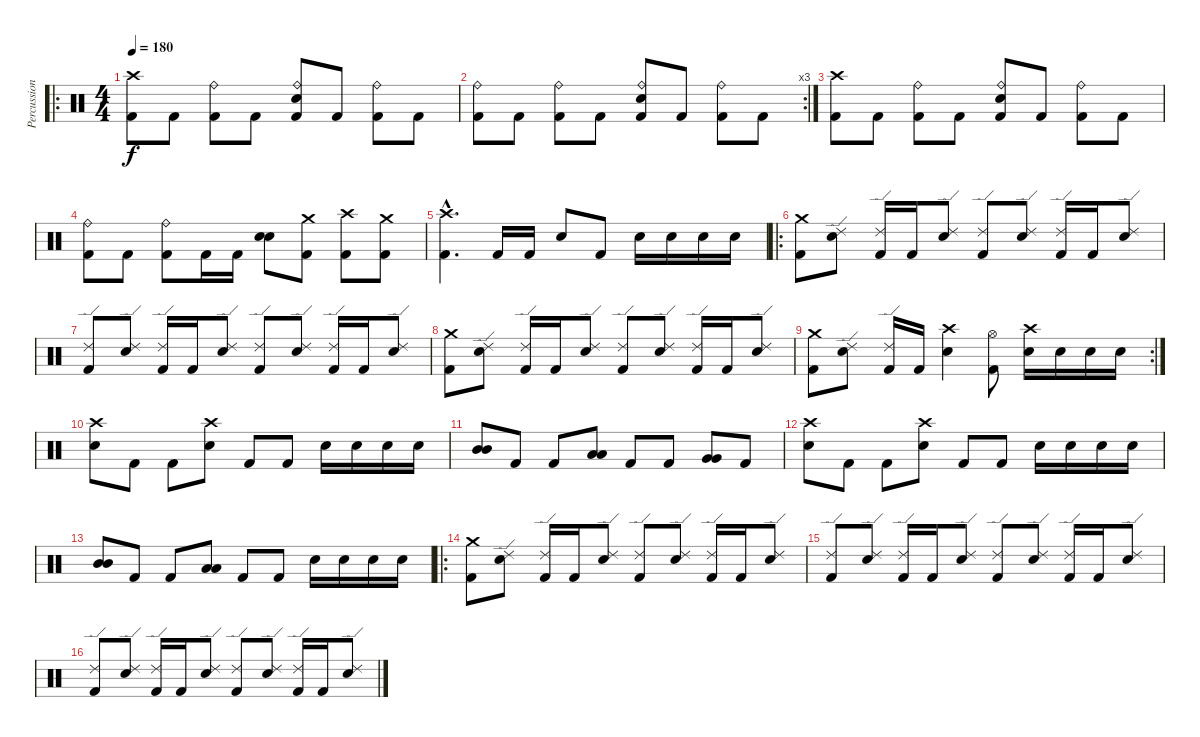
\track ("Percussions" "Percussion") {instrument percussion}
\staff {score}
\articulation defaults
\ro
\ts (4 4)
\tempo 180
\clef neutral
\ks c
("Crash high (hit)" "Kick (hit) 2").8{dy f} "Kick (hit) 2".8 ("Ride (bell)" "Kick (hit) 2").8 "Kick (hit) 2".8 ("Ride (bell)" "Snare (hit) 2" "Kick (hit) 2").8 "Kick (hit) 2".8 ("Ride (bell)" "Kick (hit) 2").8 "Kick (hit) 2".8 |
\rc 3
("Ride (bell)" "Kick (hit) 2").8 "Kick (hit) 2".8 ("Ride (bell)" "Kick (hit) 2").8 "Kick (hit) 2".8 ("Ride (bell)" "Snare (hit) 2" "Kick (hit) 2").8 "Kick (hit) 2".8 ("Ride (bell)" "Kick (hit) 2").8 "Kick (hit) 2".8 |
("Crash high (hit)" "Kick (hit) 2").8 "Kick (hit) 2".8 ("Ride (bell)" "Kick (hit) 2").8 "Kick (hit) 2".8 ("Ride (bell)" "Snare (hit) 2" "Kick (hit) 2").8 "Kick (hit) 2".8 ("Ride (bell)" "Kick (hit) 2").8 "Kick (hit) 2".8 |
("Ride (bell)" "Kick (hit) 2").8 "Kick (hit) 2".8 ("Ride (bell)" "Kick (hit) 2").8 "Kick (hit) 2".16 "Kick (hit) 2".16 ("Snare (hit) 2" "Snare (hit) 2").8{bd 240} ("Crash medium (hit)" "Kick (hit) 2").8 ("Crash high (hit)" "Kick (hit) 2").8 ("Crash medium (hit)" "Kick (hit) 2").8 |
("Crash high (hit)"{hac} "Kick (hit) 2"{hac}).4{d} "Kick (hit) 2".16 "Kick (hit) 2".16 "Snare (hit) 2".8 "Kick (hit) 2".8 "Snare (hit) 2".16 "Snare (hit) 2".16 "Snare (hit) 2".16 "Snare (hit) 2".16 |
\ro
("Crash medium (hit)" "Kick (hit) 2").8 ("Ride (edge) 2" "Snare (hit) 2").8 ("Ride (edge) 2" "Kick (hit) 2").16 "Kick (hit) 2".16 ("Ride (edge) 2" "Snare (hit) 2").8 ("Ride (edge) 2" "Kick (hit) 2").8 ("Ride (edge) 2" "Snare (hit) 2").8 ("Ride (edge) 2" "Kick (hit) 2").16 "Kick (hit) 2".16 ("Ride (edge) 2" "Snare (hit) 2").8 |
("Ride (edge) 2" "Kick (hit) 2").8 ("Ride (edge) 2" "Snare (hit) 2").8 ("Ride (edge) 2" "Kick (hit) 2").16 "Kick (hit) 2".16 ("Ride (edge) 2" "Snare (hit) 2").8 ("Ride (edge) 2" "Kick (hit) 2").8 ("Ride (edge) 2" "Snare (hit) 2").8 ("Ride (edge) 2" "Kick (hit) 2").16 "Kick (hit) 2".16 ("Ride (edge) 2" "Snare (hit) 2").8 |
("Crash medium (hit)" "Kick (hit) 2").8 ("Ride (edge) 2" "Snare (hit) 2").8 ("Ride (edge) 2" "Kick (hit) 2").16 "Kick (hit) 2".16 ("Ride (edge) 2" "Snare (hit) 2").8 ("Ride (edge) 2" "Kick (hit) 2").8 ("Ride (edge) 2" "Snare (hit) 2").8 ("Ride (edge) 2" "Kick (hit) 2").16 "Kick (hit) 2".16 ("Ride (edge) 2" "Snare (hit) 2").8 |
\rc 2
("Crash medium (hit)" "Kick (hit) 2").8 ("Ride (edge) 2" "Snare (hit) 2").8 ("Ride (edge) 2" "Kick (hit) 2").16 "Kick (hit) 2".16 ("Crash high (hit)" "Snare (hit) 2").4 ("Hi-Hat (open)" "Kick (hit) 2").8 ("Crash high (hit)" "Snare (hit) 2").16 "Snare (hit) 2".16 "Snare (hit) 2".16 "Snare (hit) 2".16 |
("Crash high (hit)" "Snare (hit) 2").8 "Kick (hit) 2".8 "Kick (hit) 2".8 ("Crash high (hit)" "Snare (hit) 2").8 "Kick (hit) 2".8 "Kick (hit) 2".8 "Snare (hit) 2".16 "Snare (hit) 2".16 "Snare (hit) 2".16 "Snare (hit) 2".16 |
("Mid Tom (hit)" "Mid Tom (hit)").8{bd 120} "Kick (hit) 2".8 "Kick (hit) 2".8 ("Low Tom (hit)" "Low Tom (hit)").8{bd 120} "Kick (hit) 2".8 "Kick (hit) 2".8 ("Very Low Tom (hit)" "Very Low Tom (hit)").8 "Kick (hit) 2".8 |
("Crash high (hit)" "Snare (hit) 2").8 "Kick (hit) 2".8 "Kick (hit) 2".8 ("Crash high (hit)" "Snare (hit) 2").8 "Kick (hit) 2".8 "Kick (hit) 2".8 "Snare (hit) 2".16 "Snare (hit) 2".16 "Snare (hit) 2".16 "Snare (hit) 2".16 |
("Mid Tom (hit)" "Mid Tom (hit)").8{bd 120} "Kick (hit) 2".8 "Kick (hit) 2".8 ("Low Tom (hit)" "Low Tom (hit)").8{bd 120} "Kick (hit) 2".8 "Kick (hit) 2".8 "Snare (hit) 2".16 "Snare (hit) 2".16 "Snare (hit) 2".16 "Snare (hit) 2".16 |
\ro
("Crash medium (hit)" "Kick (hit) 2").8 ("Ride (edge) 2" "Snare (hit) 2").8 ("Ride (edge) 2" "Kick (hit) 2").16 "Kick (hit) 2".16 ("Ride (edge) 2" "Snare (hit) 2").8 ("Ride (edge) 2" "Kick (hit) 2").8 ("Ride (edge) 2" "Snare (hit) 2").8 ("Ride (edge) 2" "Kick (hit) 2").16 "Kick (hit) 2".16 ("Ride (edge) 2" "Snare (hit) 2").8 |
("Ride (edge) 2" "Kick (hit) 2").8 ("Ride (edge) 2" "Snare (hit) 2").8 ("Ride (edge) 2" "Kick (hit) 2").16 "Kick (hit) 2".16 ("Ride (edge) 2" "Snare (hit) 2").8 ("Ride (edge) 2" "Kick (hit) 2").8 ("Ride (edge) 2" "Snare (hit) 2").8 ("Ride (edge) 2" "Kick (hit) 2").16 "Kick (hit) 2".16 ("Ride (edge) 2" "Snare (hit) 2").8 |
("Ride (edge) 2" "Kick (hit) 2").8 ("Ride (edge) 2" "Snare (hit) 2").8 ("Ride (edge) 2" "Kick (hit) 2").16 "Kick (hit) 2".16 ("Ride (edge) 2" "Snare (hit) 2").8 ("Ride (edge) 2" "Kick (hit) 2").8 ("Ride (edge) 2" "Snare (hit) 2").8 ("Ride (edge) 2" "Kick (hit) 2").16 "Kick (hit) 2".16 ("Ride (edge) 2" "Snare (hit) 2").8
